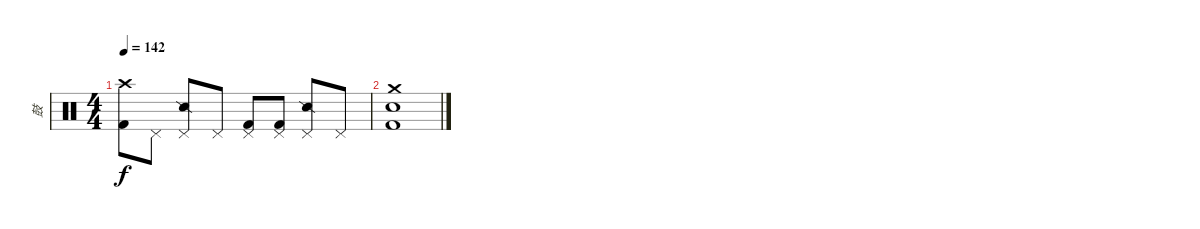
\track ("鼓" "鼓") {instrument percussion}
\staff {score}
\articulation defaults
\ts (4 4)
\tempo 142
\clef neutral
\ks c
("Crash high (hit)" "Kick (hit) 2").8{dy f} "Pedal Hi-Hat (hit)".8 ("Pedal Hi-Hat (hit)" "Snare (side stick) 2").8 "Pedal Hi-Hat (hit)".8 ("Pedal Hi-Hat (hit)" "Kick (hit) 2").8 ("Pedal Hi-Hat (hit)" "Kick (hit) 2").8 ("Pedal Hi-Hat (hit)" "Snare (side stick) 2").8 "Pedal Hi-Hat (hit)".8 |
("Crash medium (hit)" "Snare (hit) 2" "Kick (hit) 2").1
